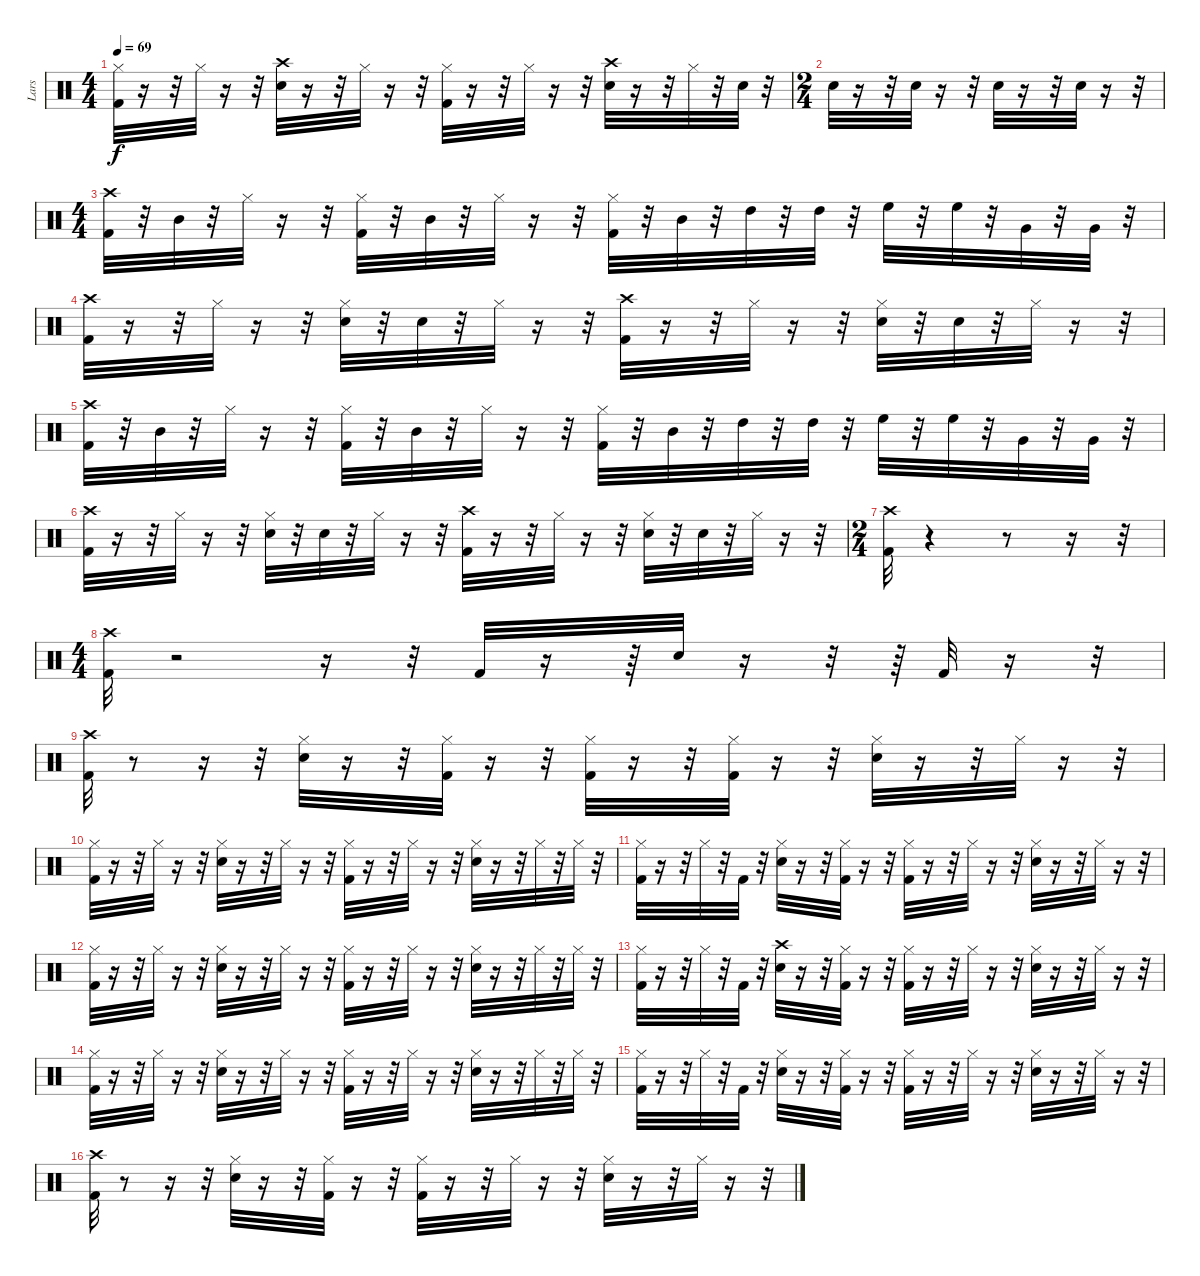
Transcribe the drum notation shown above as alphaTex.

\track ("Lars" "Lars") {instrument percussion}
\staff {score}
\articulation defaults
\ts (4 4)
\tempo 69
\clef neutral
\ks c
("Kick (hit) 2" "Hi-Hat (closed)").32{dy f} r.16 r.32 "Hi-Hat (closed)".32 r.16 r.32 ("Crash high (hit)" "Snare (hit) 2").32 r.16 r.32 "Hi-Hat (closed)".32 r.16 r.32 ("Hi-Hat (closed)" "Kick (hit) 2").32 r.16 r.32 "Hi-Hat (closed)".32 r.16 r.32 ("Crash high (hit)" "Snare (hit) 2").32 r.16 r.32 "Hi-Hat (closed)".32 r.32 "Snare (hit) 2".32 r.32 |
\ts (2 4)
"Snare (hit) 2".32 r.16 r.32 "Snare (hit) 2".32 r.16 r.32 "Snare (hit) 2".32 r.16 r.32 "Snare (hit) 2".32 r.16 r.32 |
\ts (4 4)
("Crash high (hit)" "Kick (hit) 2").32 r.32 "Mid Tom (hit)".32 r.32 "Hi-Hat (closed)".32 r.16 r.32 ("Hi-Hat (closed)" "Kick (hit) 2").32 r.32 "Mid Tom (hit)".32 r.32 "Hi-Hat (closed)".32 r.16 r.32 ("Hi-Hat (closed)" "Kick (hit) 2").32 r.32 "Mid Tom (hit)".32 r.32 "High Tom (hit)".32 r.32 "High Tom (hit)".32 r.32 "High Floor Tom (hit)".32 r.32 "High Floor Tom (hit)".32 r.32 "Very Low Tom (hit)".32 r.32 "Very Low Tom (hit)".32 r.32 |
("Kick (hit) 2" "Crash high (hit)").32 r.16 r.32 "Hi-Hat (closed)".32 r.16 r.32 ("Snare (hit) 2" "Hi-Hat (closed)").32 r.32 "Snare (hit) 2".32 r.32 "Hi-Hat (closed)".32 r.16 r.32 ("Crash high (hit)" "Kick (hit) 2").32 r.16 r.32 "Hi-Hat (closed)".32 r.16 r.32 ("Snare (hit) 2" "Hi-Hat (closed)").32 r.32 "Snare (hit) 2".32 r.32 "Hi-Hat (closed)".32 r.16 r.32 |
("Crash high (hit)" "Kick (hit) 2").32 r.32 "Mid Tom (hit)".32 r.32 "Hi-Hat (closed)".32 r.16 r.32 ("Hi-Hat (closed)" "Kick (hit) 2").32 r.32 "Mid Tom (hit)".32 r.32 "Hi-Hat (closed)".32 r.16 r.32 ("Hi-Hat (closed)" "Kick (hit) 2").32 r.32 "Mid Tom (hit)".32 r.32 "High Tom (hit)".32 r.32 "High Tom (hit)".32 r.32 "High Floor Tom (hit)".32 r.32 "High Floor Tom (hit)".32 r.32 "Very Low Tom (hit)".32 r.32 "Very Low Tom (hit)".32 r.32 |
("Kick (hit) 2" "Crash high (hit)").32 r.16 r.32 "Hi-Hat (closed)".32 r.16 r.32 ("Snare (hit) 2" "Hi-Hat (closed)").32 r.32 "Snare (hit) 2".32 r.32 "Hi-Hat (closed)".32 r.16 r.32 ("Crash high (hit)" "Kick (hit) 2").32 r.16 r.32 "Hi-Hat (closed)".32 r.16 r.32 ("Snare (hit) 2" "Hi-Hat (closed)").32 r.32 "Snare (hit) 2".32 r.32 "Hi-Hat (closed)".32 r.16 r.32 |
\ts (2 4)
("Kick (hit) 2" "Crash high (hit)").32 r.4 r.8 r.16 r.32 |
\ts (4 4)
("Crash high (hit)" "Kick (hit) 2").32 r.2 r.16 r.32 "Kick (hit) 2".32 r.16 r.64 "Snare (hit) 2".32 r.16 r.32 r.64 "Kick (hit) 2".32 r.16 r.32 |
("Kick (hit) 2" "Crash high (hit)").32 r.8 r.16 r.32 ("Hi-Hat (closed)" "Snare (hit) 2").32 r.16 r.32 ("Hi-Hat (closed)" "Kick (hit) 2").32 r.16 r.32 ("Hi-Hat (closed)" "Kick (hit) 2").32 r.16 r.32 ("Hi-Hat (closed)" "Kick (hit) 2").32 r.16 r.32 ("Hi-Hat (closed)" "Snare (hit) 2").32 r.16 r.32 "Hi-Hat (closed)".32 r.16 r.32 |
("Hi-Hat (closed)" "Kick (hit) 2").32 r.16 r.32 "Hi-Hat (closed)".32 r.16 r.32 ("Snare (hit) 2" "Hi-Hat (closed)").32 r.16 r.32 "Hi-Hat (closed)".32 r.16 r.32 ("Hi-Hat (closed)" "Kick (hit) 2").32 r.16 r.32 "Hi-Hat (closed)".32 r.16 r.32 ("Hi-Hat (closed)" "Snare (hit) 2").32 r.16 r.32 "Hi-Hat (closed)".32 r.32 "Hi-Hat (closed)".32 r.32 |
("Hi-Hat (closed)" "Kick (hit) 2").32 r.16 r.32 "Hi-Hat (closed)".32 r.32 "Kick (hit) 2".32 r.32 ("Snare (hit) 2" "Hi-Hat (closed)").32 r.16 r.32 ("Kick (hit) 2" "Hi-Hat (closed)").32 r.16 r.32 ("Hi-Hat (closed)" "Kick (hit) 2").32 r.16 r.32 "Hi-Hat (closed)".32 r.16 r.32 ("Snare (hit) 2" "Hi-Hat (closed)").32 r.16 r.32 "Hi-Hat (closed)".32 r.16 r.32 |
("Hi-Hat (closed)" "Kick (hit) 2").32 r.16 r.32 "Hi-Hat (closed)".32 r.16 r.32 ("Snare (hit) 2" "Hi-Hat (closed)").32 r.16 r.32 "Hi-Hat (closed)".32 r.16 r.32 ("Kick (hit) 2" "Hi-Hat (closed)").32 r.16 r.32 "Hi-Hat (closed)".32 r.16 r.32 ("Hi-Hat (closed)" "Snare (hit) 2").32 r.16 r.32 "Hi-Hat (closed)".32 r.32 "Hi-Hat (closed)".32 r.32 |
("Hi-Hat (closed)" "Kick (hit) 2").32 r.16 r.32 "Hi-Hat (closed)".32 r.32 "Kick (hit) 2".32 r.32 ("Crash high (hit)" "Snare (hit) 2").32 r.16 r.32 ("Hi-Hat (closed)" "Kick (hit) 2").32 r.16 r.32 ("Hi-Hat (closed)" "Kick (hit) 2").32 r.16 r.32 "Hi-Hat (closed)".32 r.16 r.32 ("Snare (hit) 2" "Hi-Hat (closed)").32 r.16 r.32 "Hi-Hat (closed)".32 r.16 r.32 |
("Hi-Hat (closed)" "Kick (hit) 2").32 r.16 r.32 "Hi-Hat (closed)".32 r.16 r.32 ("Snare (hit) 2" "Hi-Hat (closed)").32 r.16 r.32 "Hi-Hat (closed)".32 r.16 r.32 ("Kick (hit) 2" "Hi-Hat (closed)").32 r.16 r.32 "Hi-Hat (closed)".32 r.16 r.32 ("Hi-Hat (closed)" "Snare (hit) 2").32 r.16 r.32 "Hi-Hat (closed)".32 r.32 "Hi-Hat (closed)".32 r.32 |
("Hi-Hat (closed)" "Kick (hit) 2").32 r.16 r.32 "Hi-Hat (closed)".32 r.32 "Kick (hit) 2".32 r.32 ("Snare (hit) 2" "Hi-Hat (closed)").32 r.16 r.32 ("Kick (hit) 2" "Hi-Hat (closed)").32 r.16 r.32 ("Hi-Hat (closed)" "Kick (hit) 2").32 r.16 r.32 "Hi-Hat (closed)".32 r.16 r.32 ("Snare (hit) 2" "Hi-Hat (closed)").32 r.16 r.32 "Hi-Hat (closed)".32 r.16 r.32 |
("Kick (hit) 2" "Crash high (hit)").32 r.8 r.16 r.32 ("Hi-Hat (closed)" "Snare (hit) 2").32 r.16 r.32 ("Hi-Hat (closed)" "Kick (hit) 2").32 r.16 r.32 ("Hi-Hat (closed)" "Kick (hit) 2").32 r.16 r.32 "Hi-Hat (closed)".32 r.16 r.32 ("Snare (hit) 2" "Hi-Hat (closed)").32 r.16 r.32 "Hi-Hat (closed)".32 r.16 r.32
